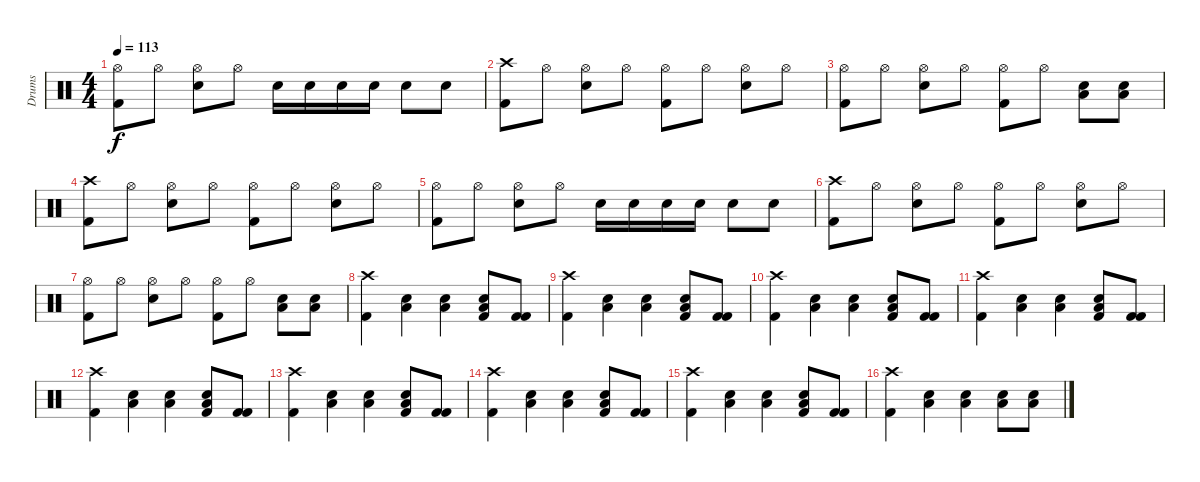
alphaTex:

\track ("Drums" "Drums") {instrument percussion}
\staff {score}
\articulation defaults
\ts (4 4)
\tempo 113
\clef neutral
\ks c
("Hi-Hat (open)" "Kick (hit) 2").8{dy f} "Hi-Hat (open)".8 ("Hi-Hat (open)" "Electric Snare (hit)").8 "Hi-Hat (open)".8 "Electric Snare (hit)".16 "Electric Snare (hit)".16 "Electric Snare (hit)".16 "Electric Snare (hit)".16 "Electric Snare (hit)".8 "Electric Snare (hit)".8 |
("Crash high (hit)" "Kick (hit) 2").8 "Hi-Hat (open)".8 ("Hi-Hat (open)" "Electric Snare (hit)").8 "Hi-Hat (open)".8 ("Hi-Hat (open)" "Kick (hit) 2").8 "Hi-Hat (open)".8 ("Hi-Hat (open)" "Electric Snare (hit)").8 "Hi-Hat (open)".8 |
("Hi-Hat (open)" "Kick (hit) 2").8 "Hi-Hat (open)".8 ("Hi-Hat (open)" "Electric Snare (hit)").8 "Hi-Hat (open)".8 ("Hi-Hat (open)" "Kick (hit) 2").8 "Hi-Hat (open)".8 ("Electric Snare (hit)" "Low Tom (hit)").8 ("Electric Snare (hit)" "Low Tom (hit)").8 |
("Crash high (hit)" "Kick (hit) 2").8 "Hi-Hat (open)".8 ("Hi-Hat (open)" "Electric Snare (hit)").8 "Hi-Hat (open)".8 ("Hi-Hat (open)" "Kick (hit) 2").8 "Hi-Hat (open)".8 ("Hi-Hat (open)" "Electric Snare (hit)").8 "Hi-Hat (open)".8 |
("Hi-Hat (open)" "Kick (hit) 2").8 "Hi-Hat (open)".8 ("Hi-Hat (open)" "Electric Snare (hit)").8 "Hi-Hat (open)".8 "Electric Snare (hit)".16 "Electric Snare (hit)".16 "Electric Snare (hit)".16 "Electric Snare (hit)".16 "Electric Snare (hit)".8 "Electric Snare (hit)".8 |
("Crash high (hit)" "Kick (hit) 2").8 "Hi-Hat (open)".8 ("Hi-Hat (open)" "Electric Snare (hit)").8 "Hi-Hat (open)".8 ("Hi-Hat (open)" "Kick (hit) 2").8 "Hi-Hat (open)".8 ("Hi-Hat (open)" "Electric Snare (hit)").8 "Hi-Hat (open)".8 |
("Hi-Hat (open)" "Kick (hit) 2").8 "Hi-Hat (open)".8 ("Hi-Hat (open)" "Electric Snare (hit)").8 "Hi-Hat (open)".8 ("Hi-Hat (open)" "Kick (hit) 2").8 "Hi-Hat (open)".8 ("Electric Snare (hit)" "Low Tom (hit)").8 ("Electric Snare (hit)" "Low Tom (hit)").8 |
("Crash high (hit)" "Kick (hit) 2").4 ("Low Tom (hit)" "Electric Snare (hit)").4 ("Low Tom (hit)" "Electric Snare (hit)").4 ("Low Tom (hit)" "Kick (hit) 2" "Electric Snare (hit)").8 ("Kick (hit) 2" "Kick (hit) 2").8 |
("Crash high (hit)" "Kick (hit) 2").4 ("Low Tom (hit)" "Electric Snare (hit)").4 ("Low Tom (hit)" "Electric Snare (hit)").4 ("Low Tom (hit)" "Kick (hit) 2" "Electric Snare (hit)").8 ("Kick (hit) 2" "Kick (hit) 2").8 |
("Crash high (hit)" "Kick (hit) 2").4 ("Low Tom (hit)" "Electric Snare (hit)").4 ("Low Tom (hit)" "Electric Snare (hit)").4 ("Low Tom (hit)" "Kick (hit) 2" "Electric Snare (hit)").8 ("Kick (hit) 2" "Kick (hit) 2").8 |
("Crash high (hit)" "Kick (hit) 2").4 ("Low Tom (hit)" "Electric Snare (hit)").4 ("Low Tom (hit)" "Electric Snare (hit)").4 ("Low Tom (hit)" "Kick (hit) 2" "Electric Snare (hit)").8 ("Kick (hit) 2" "Kick (hit) 2").8 |
("Crash high (hit)" "Kick (hit) 2").4 ("Low Tom (hit)" "Electric Snare (hit)").4 ("Low Tom (hit)" "Electric Snare (hit)").4 ("Low Tom (hit)" "Kick (hit) 2" "Electric Snare (hit)").8 ("Kick (hit) 2" "Kick (hit) 2").8 |
("Crash high (hit)" "Kick (hit) 2").4 ("Low Tom (hit)" "Electric Snare (hit)").4 ("Low Tom (hit)" "Electric Snare (hit)").4 ("Low Tom (hit)" "Kick (hit) 2" "Electric Snare (hit)").8 ("Kick (hit) 2" "Kick (hit) 2").8 |
("Crash high (hit)" "Kick (hit) 2").4 ("Low Tom (hit)" "Electric Snare (hit)").4 ("Low Tom (hit)" "Electric Snare (hit)").4 ("Low Tom (hit)" "Kick (hit) 2" "Electric Snare (hit)").8 ("Kick (hit) 2" "Kick (hit) 2").8 |
("Crash high (hit)" "Kick (hit) 2").4 ("Low Tom (hit)" "Electric Snare (hit)").4 ("Low Tom (hit)" "Electric Snare (hit)").4 ("Low Tom (hit)" "Kick (hit) 2" "Electric Snare (hit)").8 ("Kick (hit) 2" "Kick (hit) 2").8 |
("Crash high (hit)" "Kick (hit) 2").4 ("Low Tom (hit)" "Electric Snare (hit)").4 ("Low Tom (hit)" "Electric Snare (hit)").4 ("Electric Snare (hit)" "Low Tom (hit)").8 ("Electric Snare (hit)" "Low Tom (hit)").8
